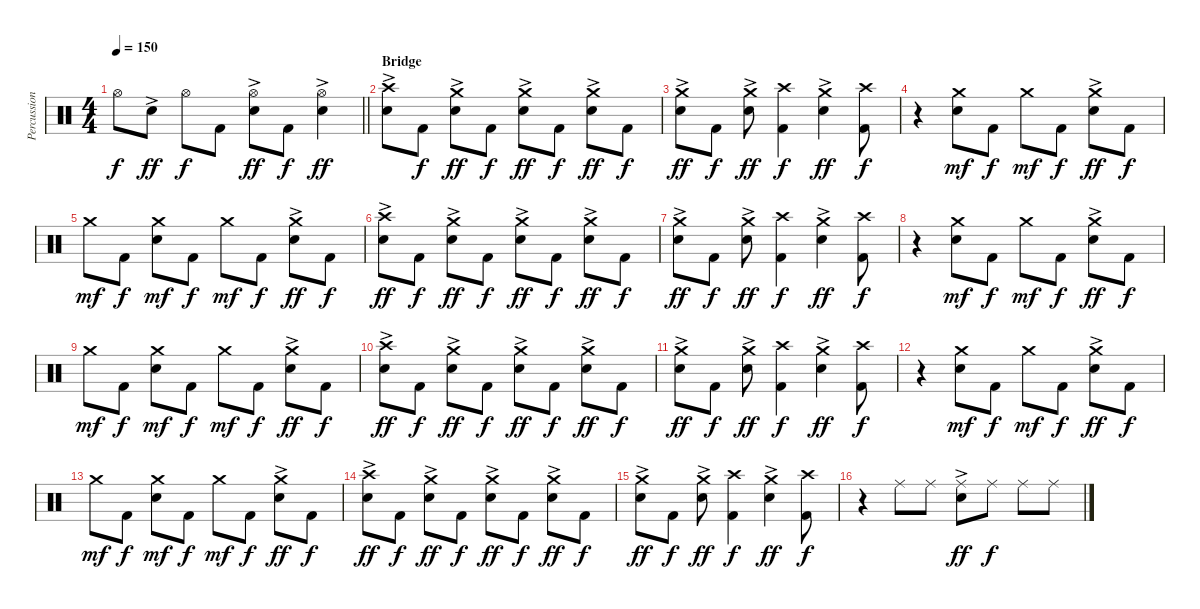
\track ("Percussion" "Percussion") {instrument percussion}
\staff {score}
\articulation defaults
\ts (4 4)
\tempo 150
\clef neutral
\barLineRight lightlight
\ks c "Hi-Hat (open)".8{dy f} "Electric Snare (hit)"{ac}.8{dy ff} "Hi-Hat (open)".8{dy f} "Kick (hit) 2".8
("Hi-Hat (open)" "Electric Snare (hit)"{ac}).8{dy ff} "Kick (hit) 2".8{dy f} ("Hi-Hat (open)" "Electric Snare (hit)"{ac}).4{dy ff} |
\section ("" "Bridge")
("Crash high (hit)" "Electric Snare (hit)"{ac}).8 "Kick (hit) 2".8{dy f} ("Crash medium (hit)" "Electric Snare (hit)"{ac}).8{dy ff} "Kick (hit) 2".8{dy f} ("Crash medium (hit)" "Electric Snare (hit)"{ac}).8{dy ff} "Kick (hit) 2".8{dy f} ("Crash medium (hit)" "Electric Snare (hit)"{ac}).8{dy ff} "Kick (hit) 2".8{dy f} |
("Crash medium (hit)" "Electric Snare (hit)"{ac}).8{dy ff} "Kick (hit) 2".8{dy f} ("Crash medium (hit)" "Electric Snare (hit)"{ac}).8{dy ff} ("Crash high (hit)" "Kick (hit) 2").4{dy f} ("Crash medium (hit)" "Electric Snare (hit)"{ac}).4{dy ff} ("Crash high (hit)" "Kick (hit) 2").8{dy f} |
r.4 ("Crash medium (hit)" "Electric Snare (hit)").8{dy mf} "Kick (hit) 2".8{dy f} "Crash medium (hit)".8{dy mf} "Kick (hit) 2".8{dy f} ("Crash medium (hit)" "Electric Snare (hit)"{ac}).8{dy ff} "Kick (hit) 2".8{dy f} |
"Crash medium (hit)".8{dy mf} "Kick (hit) 2".8{dy f} ("Crash medium (hit)" "Electric Snare (hit)").8{dy mf} "Kick (hit) 2".8{dy f} "Crash medium (hit)".8{dy mf} "Kick (hit) 2".8{dy f} ("Crash medium (hit)" "Electric Snare (hit)"{ac}).8{dy ff} "Kick (hit) 2".8{dy f} |
("Crash high (hit)" "Electric Snare (hit)"{ac}).8{dy ff} "Kick (hit) 2".8{dy f} ("Crash medium (hit)" "Electric Snare (hit)"{ac}).8{dy ff} "Kick (hit) 2".8{dy f} ("Crash medium (hit)" "Electric Snare (hit)"{ac}).8{dy ff} "Kick (hit) 2".8{dy f} ("Crash medium (hit)" "Electric Snare (hit)"{ac}).8{dy ff} "Kick (hit) 2".8{dy f} |
("Crash medium (hit)" "Electric Snare (hit)"{ac}).8{dy ff} "Kick (hit) 2".8{dy f} ("Crash medium (hit)" "Electric Snare (hit)"{ac}).8{dy ff} ("Crash high (hit)" "Kick (hit) 2").4{dy f} ("Crash medium (hit)" "Electric Snare (hit)"{ac}).4{dy ff} ("Crash high (hit)" "Kick (hit) 2").8{dy f} |
r.4 ("Crash medium (hit)" "Electric Snare (hit)").8{dy mf} "Kick (hit) 2".8{dy f} "Crash medium (hit)".8{dy mf} "Kick (hit) 2".8{dy f} ("Crash medium (hit)" "Electric Snare (hit)"{ac}).8{dy ff} "Kick (hit) 2".8{dy f} |
"Crash medium (hit)".8{dy mf} "Kick (hit) 2".8{dy f} ("Crash medium (hit)" "Electric Snare (hit)").8{dy mf} "Kick (hit) 2".8{dy f} "Crash medium (hit)".8{dy mf} "Kick (hit) 2".8{dy f} ("Crash medium (hit)" "Electric Snare (hit)"{ac}).8{dy ff} "Kick (hit) 2".8{dy f} |
("Crash high (hit)" "Electric Snare (hit)"{ac}).8{dy ff} "Kick (hit) 2".8{dy f} ("Crash medium (hit)" "Electric Snare (hit)"{ac}).8{dy ff} "Kick (hit) 2".8{dy f} ("Crash medium (hit)" "Electric Snare (hit)"{ac}).8{dy ff} "Kick (hit) 2".8{dy f} ("Crash medium (hit)" "Electric Snare (hit)"{ac}).8{dy ff} "Kick (hit) 2".8{dy f} |
("Crash medium (hit)" "Electric Snare (hit)"{ac}).8{dy ff} "Kick (hit) 2".8{dy f} ("Crash medium (hit)" "Electric Snare (hit)"{ac}).8{dy ff} ("Crash high (hit)" "Kick (hit) 2").4{dy f} ("Crash medium (hit)" "Electric Snare (hit)"{ac}).4{dy ff} ("Crash high (hit)" "Kick (hit) 2").8{dy f} |
r.4 ("Crash medium (hit)" "Electric Snare (hit)").8{dy mf} "Kick (hit) 2".8{dy f} "Crash medium (hit)".8{dy mf} "Kick (hit) 2".8{dy f} ("Crash medium (hit)" "Electric Snare (hit)"{ac}).8{dy ff} "Kick (hit) 2".8{dy f} |
"Crash medium (hit)".8{dy mf} "Kick (hit) 2".8{dy f} ("Crash medium (hit)" "Electric Snare (hit)").8{dy mf} "Kick (hit) 2".8{dy f} "Crash medium (hit)".8{dy mf} "Kick (hit) 2".8{dy f} ("Crash medium (hit)" "Electric Snare (hit)"{ac}).8{dy ff} "Kick (hit) 2".8{dy f} |
("Crash high (hit)" "Electric Snare (hit)"{ac}).8{dy ff} "Kick (hit) 2".8{dy f} ("Crash medium (hit)" "Electric Snare (hit)"{ac}).8{dy ff} "Kick (hit) 2".8{dy f} ("Crash medium (hit)" "Electric Snare (hit)"{ac}).8{dy ff} "Kick (hit) 2".8{dy f} ("Crash medium (hit)" "Electric Snare (hit)"{ac}).8{dy ff} "Kick (hit) 2".8{dy f} |
("Crash medium (hit)" "Electric Snare (hit)"{ac}).8{dy ff} "Kick (hit) 2".8{dy f} ("Crash medium (hit)" "Electric Snare (hit)"{ac}).8{dy ff} ("Crash high (hit)" "Kick (hit) 2").4{dy f} ("Crash medium (hit)" "Electric Snare (hit)"{ac}).4{dy ff} ("Crash high (hit)" "Kick (hit) 2").8{dy f} |
r.4 "Ride (middle)".8 "Ride (middle)".8 ("Ride (middle)" "Electric Snare (hit)"{ac}).8{dy ff} "Ride (middle)".8{dy f} "Ride (middle)".8 "Ride (middle)".8
